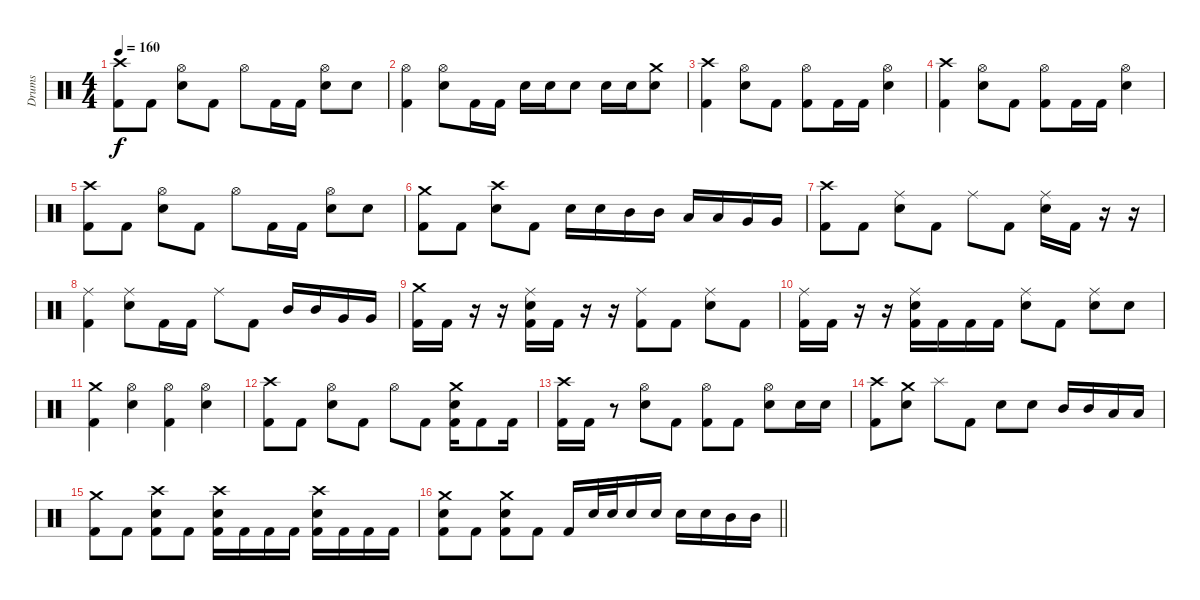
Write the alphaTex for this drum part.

\track ("Drums" "Drums") {instrument percussion}
\staff {score}
\articulation defaults
\ts (4 4)
\tempo 160
\clef neutral
\ks c
("Crash high (hit)" "Kick (hit) 2").8{dy f} "Kick (hit) 2".8 ("Hi-Hat (open)" "Electric Snare (hit)").8 "Kick (hit) 2".8 "Hi-Hat (open)".8 "Kick (hit) 2".16 "Kick (hit) 2".16 ("Hi-Hat (open)" "Electric Snare (hit)").8 "Electric Snare (hit)".8 |
("Hi-Hat (open)" "Kick (hit) 2").4 ("Hi-Hat (open)" "Electric Snare (hit)").8 "Kick (hit) 2".16 "Kick (hit) 2".16 "Electric Snare (hit)".16 "Electric Snare (hit)".16 "Electric Snare (hit)".8 "Electric Snare (hit)".16 "Electric Snare (hit)".16 ("Crash medium (hit)" "Electric Snare (hit)").8 |
("Crash high (hit)" "Kick (hit) 2").4 ("Hi-Hat (open)" "Electric Snare (hit)").8 "Kick (hit) 2".8 ("Hi-Hat (open)" "Kick (hit) 2").8 "Kick (hit) 2".16 "Kick (hit) 2".16 ("Hi-Hat (open)" "Electric Snare (hit)").4 |
("Crash high (hit)" "Kick (hit) 2").4 ("Hi-Hat (open)" "Electric Snare (hit)").8 "Kick (hit) 2".8 ("Hi-Hat (open)" "Kick (hit) 2").8 "Kick (hit) 2".16 "Kick (hit) 2".16 ("Hi-Hat (open)" "Electric Snare (hit)").4 |
("Crash high (hit)" "Kick (hit) 2").8 "Kick (hit) 2".8 ("Hi-Hat (open)" "Electric Snare (hit)").8 "Kick (hit) 2".8 "Hi-Hat (open)".8 "Kick (hit) 2".16 "Kick (hit) 2".16 ("Hi-Hat (open)" "Electric Snare (hit)").8 "Electric Snare (hit)".8 |
("Crash medium (hit)" "Kick (hit) 2").8 "Kick (hit) 2".8 ("Crash high (hit)" "Electric Snare (hit)").8 "Kick (hit) 2".8 "Electric Snare (hit)".16 "Electric Snare (hit)".16 "Mid Tom (hit)".16 "Mid Tom (hit)".16 "Low Tom (hit)".16 "Low Tom (hit)".16 "Very Low Tom (hit)".16 "Very Low Tom (hit)".16 |
("Crash high (hit)" "Kick (hit) 2").8 "Kick (hit) 2".8 ("Ride (middle)" "Electric Snare (hit)").8 "Kick (hit) 2".8 "Ride (middle)".8 "Kick (hit) 2".8 ("Ride (middle)" "Electric Snare (hit)").16 "Kick (hit) 2".16 r.16 r.16 |
("Ride (middle)" "Kick (hit) 2").4 ("Ride (middle)" "Electric Snare (hit)").8 "Kick (hit) 2".16 "Kick (hit) 2".16 "Ride (middle)".8 "Kick (hit) 2".8 "Mid Tom (hit)".16 "Mid Tom (hit)".16 "Very Low Tom (hit)".16 "Very Low Tom (hit)".16 |
("Crash medium (hit)" "Kick (hit) 2").16 "Kick (hit) 2".16 r.16 r.16 ("Ride (middle)" "Electric Snare (hit)" "Kick (hit) 2").16 "Kick (hit) 2".16 r.16 r.16 ("Ride (middle)" "Kick (hit) 2").8 "Kick (hit) 2".8 ("Ride (middle)" "Electric Snare (hit)").8 "Kick (hit) 2".8 |
("Ride (middle)" "Kick (hit) 2").16 "Kick (hit) 2".16 r.16 r.16 ("Ride (middle)" "Electric Snare (hit)" "Kick (hit) 2").16 "Kick (hit) 2".16 "Kick (hit) 2".16 "Kick (hit) 2".16 ("Ride (middle)" "Electric Snare (hit)").8 "Kick (hit) 2".8 ("Ride (middle)" "Electric Snare (hit)").8 "Electric Snare (hit)".8 |
("Crash medium (hit)" "Kick (hit) 2").4 ("Hi-Hat (open)" "Electric Snare (hit)").4 ("Hi-Hat (open)" "Kick (hit) 2").4 ("Hi-Hat (open)" "Electric Snare (hit)").4 |
("Crash high (hit)" "Kick (hit) 2").8 "Kick (hit) 2".8 ("Hi-Hat (open)" "Electric Snare (hit)").8 "Kick (hit) 2".8 "Hi-Hat (open)".8 "Kick (hit) 2".8 ("Crash medium (hit)" "Electric Snare (hit)" "Kick (hit) 2").16 "Kick (hit) 2".8 "Kick (hit) 2".16 |
("Crash high (hit)" "Kick (hit) 2").16 "Kick (hit) 2".16 r.8 ("Hi-Hat (open)" "Electric Snare (hit)").8 "Kick (hit) 2".8 ("Hi-Hat (open)" "Kick (hit) 2").8 "Kick (hit) 2".8 ("Hi-Hat (open)" "Electric Snare (hit)").8 "Electric Snare (hit)".16 "Electric Snare (hit)".16 |
("Crash high (hit)" "Kick (hit) 2").8 ("Crash medium (hit)" "Electric Snare (hit)").8 "Splash (hit)".8 "Kick (hit) 2".8 "Electric Snare (hit)".8 "Electric Snare (hit)".8 "Mid Tom (hit)".16 "Mid Tom (hit)".16 "Low Tom (hit)".16 "Low Tom (hit)".16 |
("Crash medium (hit)" "Kick (hit) 2").8 "Kick (hit) 2".8 ("Crash high (hit)" "Electric Snare (hit)" "Kick (hit) 2").8 "Kick (hit) 2".8 ("Crash high (hit)" "Electric Snare (hit)" "Kick (hit) 2").16 "Kick (hit) 2".16 "Kick (hit) 2".16 "Kick (hit) 2".16 ("Crash high (hit)" "Electric Snare (hit)" "Kick (hit) 2").16 "Kick (hit) 2".16 "Kick (hit) 2".16 "Kick (hit) 2".16 |
\barLineRight lightlight
("Crash medium (hit)" "Electric Snare (hit)" "Kick (hit) 2").8 "Kick (hit) 2".8 ("Crash medium (hit)" "Electric Snare (hit)" "Kick (hit) 2").8 "Kick (hit) 2".8 "Kick (hit) 2".16 "Electric Snare (hit)".32 "Electric Snare (hit)".32 "Electric Snare (hit)".16 "Electric Snare (hit)".16 "Electric Snare (hit)".16 "Electric Snare (hit)".16 "Mid Tom (hit)".16 "Mid Tom (hit)".16
